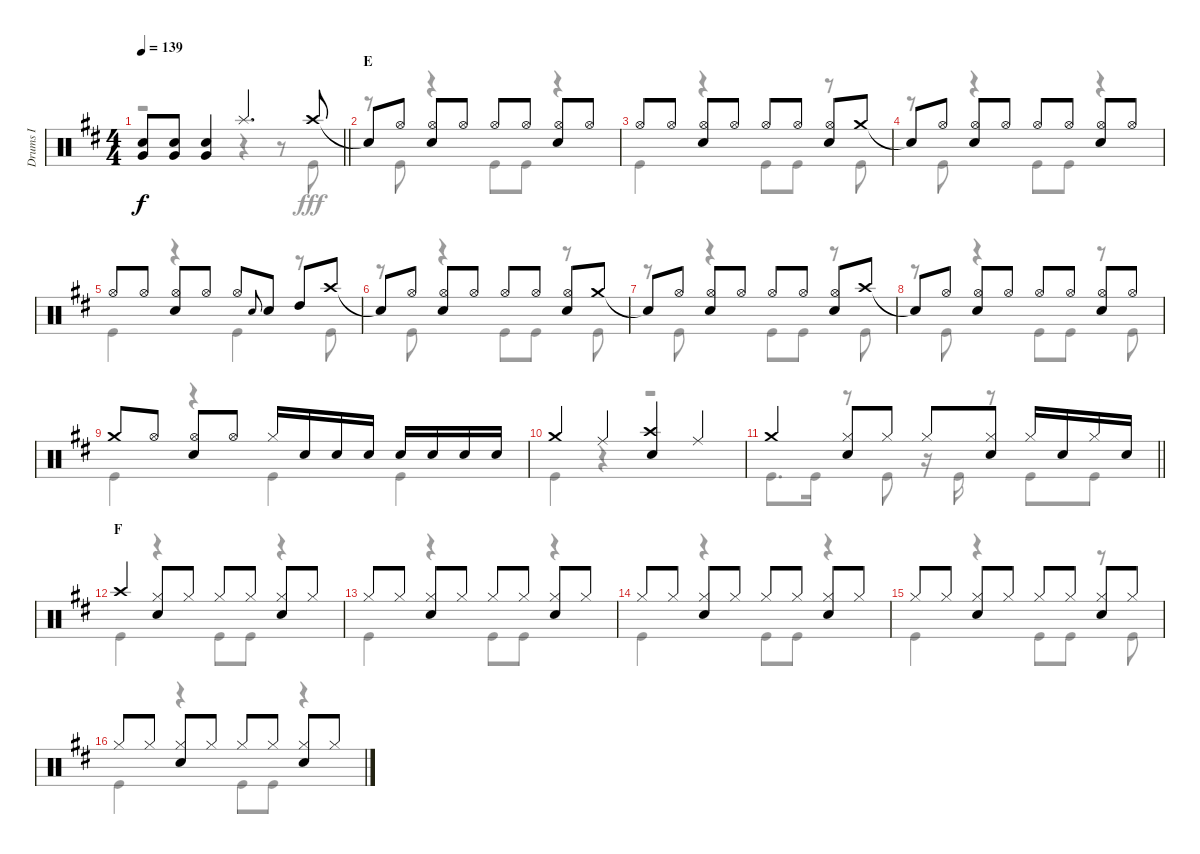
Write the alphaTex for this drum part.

\track ("Drums I" "Drums I") {instrument percussion}
\staff {score}
\articulation defaults
\voice
\ts (4 4)
\tempo 139
\clef neutral
\barLineRight lightlight
\ks d
("Snare (hit) 2" "Very Low Tom (hit)").8{dy f} ("Snare (hit) 2" "Very Low Tom (hit)").8 ("Snare (hit) 2" "Very Low Tom (hit)").4 "Splash (hit)".4{d} "Crash high (hit)".8 |
\section ("" "E")
"Snare (hit)"{t}.8 "Hi-Hat (open)".8 ("Hi-Hat (open)" "Snare (hit) 2").8 "Hi-Hat (open)".8 "Hi-Hat (open)".8 "Hi-Hat (open)".8 ("Hi-Hat (open)" "Snare (hit) 2").8 "Hi-Hat (open)".8 |
"Hi-Hat (open)".8 "Hi-Hat (open)".8 ("Hi-Hat (open)" "Snare (hit) 2").8 "Hi-Hat (open)".8 "Hi-Hat (open)".8 "Hi-Hat (open)".8 ("Hi-Hat (open)" "Snare (hit) 2").8 "Crash medium (hit)".8 |
"Snare (hit)"{t}.8 "Hi-Hat (open)".8 ("Hi-Hat (open)" "Snare (hit) 2").8 "Hi-Hat (open)".8 "Hi-Hat (open)".8 "Hi-Hat (open)".8 ("Hi-Hat (open)" "Snare (hit) 2").8 "Hi-Hat (open)".8 |
"Hi-Hat (open)".8 "Hi-Hat (open)".8 ("Hi-Hat (open)" "Snare (hit) 2").8 "Hi-Hat (open)".8 "Hi-Hat (open)".8 "Snare (hit) 2".8{gr onbeat} "Snare (hit) 2".8 "High Tom (hit)".8 "Crash high (hit)".8 |
"Snare (hit)"{t}.8 "Hi-Hat (open)".8 ("Hi-Hat (open)" "Snare (hit) 2").8 "Hi-Hat (open)".8 "Hi-Hat (open)".8 "Hi-Hat (open)".8 ("Hi-Hat (open)" "Snare (hit) 2").8 "Crash medium (hit)".8 |
"Snare (hit)"{t}.8 "Hi-Hat (open)".8 ("Hi-Hat (open)" "Snare (hit) 2").8 "Hi-Hat (open)".8 "Hi-Hat (open)".8 "Hi-Hat (open)".8 ("Hi-Hat (open)" "Snare (hit) 2").8 "Crash high (hit)".8 |
"Snare (hit)"{t}.8 "Hi-Hat (open)".8 ("Hi-Hat (open)" "Snare (hit) 2").8 "Hi-Hat (open)".8 "Hi-Hat (open)".8 "Hi-Hat (open)".8 ("Hi-Hat (open)" "Snare (hit) 2").8 "Hi-Hat (open)".8 |
"Crash medium (hit)".8 "Hi-Hat (open)".8 ("Hi-Hat (open)" "Snare (hit) 2").8 "Hi-Hat (open)".8 "Hi-Hat (closed)".16 "Snare (hit) 2".16 "Snare (hit) 2".16 "Snare (hit) 2".16 "Snare (hit) 2".16 "Snare (hit) 2".16 "Snare (hit) 2".16 "Snare (hit) 2".16 |
"Crash medium (hit)".4 "Ride (middle)".4 ("Crash high (hit)" "Snare (hit) 2").4 "Ride (middle)".4 |
\barLineRight lightlight "Crash medium (hit)".4
("Hi-Hat (closed)" "Snare (hit) 2").8 "Hi-Hat (closed)".8 "Hi-Hat (closed)".8 ("Hi-Hat (closed)" "Snare (hit) 2").8 "Hi-Hat (closed)".16 "Snare (hit) 2".16 "Hi-Hat (closed)".16 "Snare (hit) 2".16 |
\section ("" "F")
"Crash high (hit)".4 ("Hi-Hat (closed)" "Snare (hit) 2").8 "Hi-Hat (closed)".8 "Hi-Hat (closed)".8 "Hi-Hat (closed)".8 ("Hi-Hat (closed)" "Snare (hit) 2").8 "Hi-Hat (closed)".8 |
"Hi-Hat (closed)".8 "Hi-Hat (closed)".8 ("Hi-Hat (closed)" "Snare (hit) 2").8 "Hi-Hat (closed)".8 "Hi-Hat (closed)".8 "Hi-Hat (closed)".8 ("Hi-Hat (closed)" "Snare (hit) 2").8 "Hi-Hat (closed)".8 |
"Hi-Hat (closed)".8 "Hi-Hat (closed)".8 ("Hi-Hat (closed)" "Snare (hit) 2").8 "Hi-Hat (closed)".8 "Hi-Hat (closed)".8 "Hi-Hat (closed)".8 ("Hi-Hat (closed)" "Snare (hit) 2").8 "Hi-Hat (closed)".8 |
"Hi-Hat (closed)".8 "Hi-Hat (closed)".8 ("Hi-Hat (closed)" "Snare (hit) 2").8 "Hi-Hat (closed)".8 "Hi-Hat (closed)".8 "Hi-Hat (closed)".8 ("Hi-Hat (closed)" "Snare (hit) 2").8 "Hi-Hat (closed)".8 |
"Hi-Hat (closed)".8 "Hi-Hat (closed)".8 ("Hi-Hat (closed)" "Snare (hit) 2").8 "Hi-Hat (closed)".8 "Hi-Hat (closed)".8 "Hi-Hat (closed)".8 ("Hi-Hat (closed)" "Snare (hit) 2").8 "Hi-Hat (closed)".8
\voice
\clef neutral
\ottava regular
\simile none
\barLineRight lightlight
\ks d
r.2{dy fff} r.4 r.8 "Kick (hit)".8 |
r.8 "Kick (hit)".8 r.4 "Kick (hit)".8 "Kick (hit)".8 r.4 |
"Kick (hit)".4 r.4 "Kick (hit)".8 "Kick (hit)".8 r.8 "Kick (hit)".8 |
r.8 "Kick (hit)".8 r.4 "Kick (hit)".8 "Kick (hit)".8 r.4 |
"Kick (hit)".4 r.4 "Kick (hit)".4 r.8 "Kick (hit)".8 |
r.8 "Kick (hit)".8 r.4 "Kick (hit)".8 "Kick (hit)".8 r.8 "Kick (hit)".8 |
r.8 "Kick (hit)".8 r.4 "Kick (hit)".8 "Kick (hit)".8 r.8 "Kick (hit)".8 |
r.8 "Kick (hit)".8 r.4 "Kick (hit)".8 "Kick (hit)".8 r.8 "Kick (hit)".8 |
"Kick (hit)".4 r.4 "Kick (hit)".4 "Kick (hit)".4 |
"Kick (hit)".4 r.4 r.2 |
\barLineRight lightlight "Kick (hit)".8{d} "Kick (hit)".16
r.8 "Kick (hit)".8 r.16 "Kick (hit)".16 r.8 "Kick (hit)".8 "Kick (hit)".8 |
"Kick (hit)".4 r.4 "Kick (hit)".8 "Kick (hit)".8 r.4 |
"Kick (hit)".4 r.4 "Kick (hit)".8 "Kick (hit)".8 r.4 |
"Kick (hit)".4 r.4 "Kick (hit)".8 "Kick (hit)".8 r.4 |
"Kick (hit)".4 r.4 "Kick (hit)".8 "Kick (hit)".8 r.8 "Kick (hit)".8 |
"Kick (hit)".4 r.4 "Kick (hit)".8 "Kick (hit)".8 r.4
